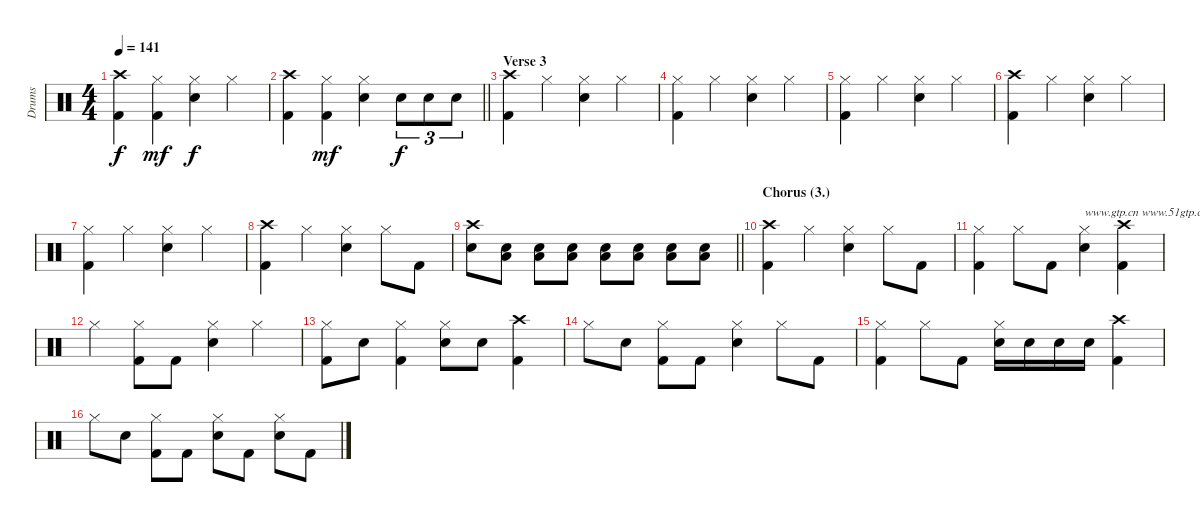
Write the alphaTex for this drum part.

\track ("Drums" "Drums") {instrument percussion}
\staff {score}
\articulation defaults
\ts (4 4)
\tempo 141
\clef neutral
\ks c
("Crash high (hit)" "Kick (hit) 2").4{dy f} ("Hi-Hat (closed)" "Kick (hit) 2").4{dy mf} ("Hi-Hat (closed)" "Electric Snare (hit)").4{dy f} "Hi-Hat (closed)".4 |
\barLineRight lightlight
("Crash high (hit)" "Kick (hit) 2").4 ("Hi-Hat (closed)" "Kick (hit) 2").4{dy mf} ("Hi-Hat (closed)" "Electric Snare (hit)").4 "Electric Snare (hit)".8{tu (3 2) dy f} "Electric Snare (hit)".8{tu (3 2)} "Electric Snare (hit)".8{tu (3 2)} |
\section ("" "Verse 3")
("Crash high (hit)" "Kick (hit) 2").4{volume 8} "Hi-Hat (closed)".4 ("Hi-Hat (closed)" "Electric Snare (hit)").4 "Hi-Hat (closed)".4 |
("Hi-Hat (closed)" "Kick (hit) 2").4 "Hi-Hat (closed)".4 ("Hi-Hat (closed)" "Electric Snare (hit)").4 "Hi-Hat (closed)".4 |
("Hi-Hat (closed)" "Kick (hit) 2").4 "Hi-Hat (closed)".4 ("Hi-Hat (closed)" "Electric Snare (hit)").4 "Hi-Hat (closed)".4 |
("Crash high (hit)" "Kick (hit) 2").4 "Hi-Hat (closed)".4 ("Hi-Hat (closed)" "Electric Snare (hit)").4 "Hi-Hat (closed)".4 |
("Hi-Hat (closed)" "Kick (hit) 2").4 "Hi-Hat (closed)".4 ("Hi-Hat (closed)" "Electric Snare (hit)").4 "Hi-Hat (closed)".4 |
("Crash high (hit)" "Kick (hit) 2").4 "Hi-Hat (closed)".4 ("Hi-Hat (closed)" "Electric Snare (hit)").4 "Hi-Hat (closed)".8 "Kick (hit) 2".8 |
\barLineRight lightlight
("Crash high (hit)" "Electric Snare (hit)").8 ("Electric Snare (hit)" "Low Floor Tom (hit)").8{volume 4} ("Electric Snare (hit)" "Low Floor Tom (hit)").8{volume 11} ("Electric Snare (hit)" "Low Floor Tom (hit)").8 ("Electric Snare (hit)" "Low Floor Tom (hit)").8 ("Electric Snare (hit)" "Low Floor Tom (hit)").8 ("Electric Snare (hit)" "Low Floor Tom (hit)").8 ("Electric Snare (hit)" "Low Floor Tom (hit)").8 |
\section ("" "Chorus (3.)")
("Crash high (hit)" "Kick (hit) 2").4 "Hi-Hat (closed)".4 ("Hi-Hat (closed)" "Electric Snare (hit)").4 "Hi-Hat (closed)".8 "Kick (hit) 2".8 |
("Hi-Hat (closed)" "Kick (hit) 2").4 "Hi-Hat (closed)".8 "Kick (hit) 2".8 ("Hi-Hat (closed)" "Electric Snare (hit)").4{txt "www.gtp.cn www.51gtp.com联合为您提供优秀的GTP!"} ("Crash high (hit)" "Kick (hit) 2").4 |
"Hi-Hat (closed)".4 ("Hi-Hat (closed)" "Kick (hit) 2").8 "Kick (hit) 2".8 ("Hi-Hat (closed)" "Electric Snare (hit)").4 "Hi-Hat (closed)".4 |
("Hi-Hat (closed)" "Kick (hit) 2").8 "Electric Snare (hit)".8 ("Hi-Hat (closed)" "Kick (hit) 2").4 ("Hi-Hat (closed)" "Electric Snare (hit)").8 "Electric Snare (hit)".8 ("Crash high (hit)" "Kick (hit) 2").4 |
"Hi-Hat (closed)".8 "Electric Snare (hit)".8 ("Hi-Hat (closed)" "Kick (hit) 2").8 "Kick (hit) 2".8 ("Hi-Hat (closed)" "Electric Snare (hit)").4 "Hi-Hat (closed)".8 "Kick (hit) 2".8 |
("Hi-Hat (closed)" "Kick (hit) 2").4 "Hi-Hat (closed)".8 "Kick (hit) 2".8 ("Hi-Hat (closed)" "Electric Snare (hit)").16 "Electric Snare (hit)".16 "Electric Snare (hit)".16 "Electric Snare (hit)".16 ("Crash high (hit)" "Kick (hit) 2").4 |
"Hi-Hat (closed)".8 "Electric Snare (hit)".8 ("Hi-Hat (closed)" "Kick (hit) 2").8 "Kick (hit) 2".8 ("Hi-Hat (closed)" "Electric Snare (hit)").8 "Kick (hit) 2".8 ("Hi-Hat (closed)" "Electric Snare (hit)").8 "Kick (hit) 2".8
